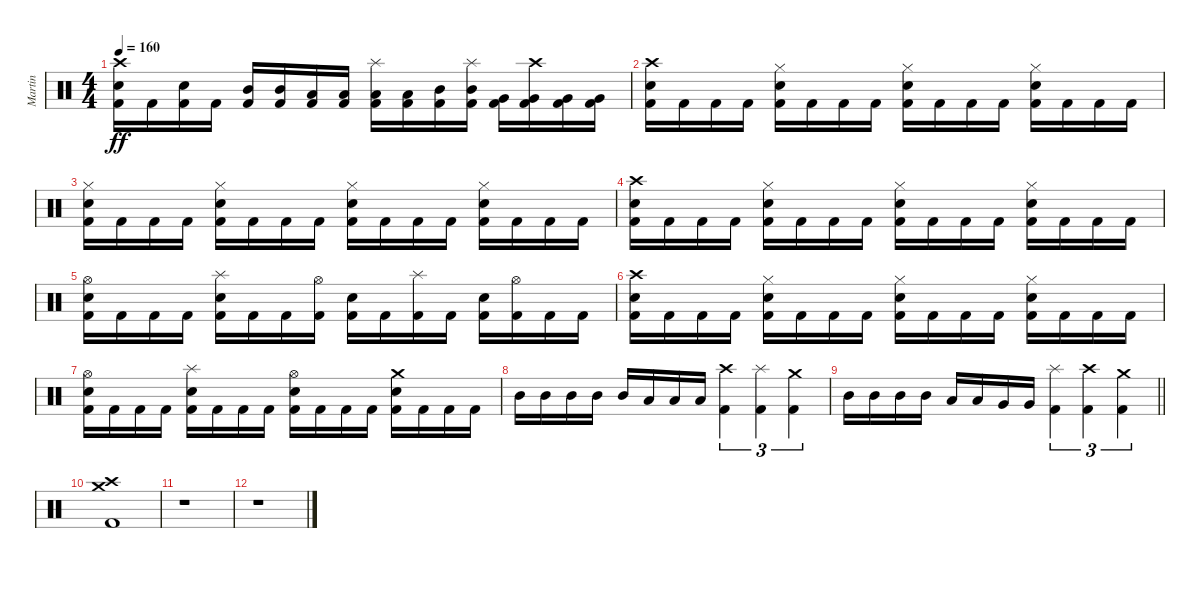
\track ("Martin" "Martin") {instrument percussion}
\staff {score}
\articulation defaults
\ts (4 4)
\tempo 160
\clef neutral
\ks c
("Crash high (hit)" "Electric Snare (hit)" "Kick (hit) 2").16{dy ff} "Kick (hit) 2".16 ("Electric Snare (hit)" "Kick (hit) 2").16 "Kick (hit) 2".16 ("Mid Tom (hit)" "Kick (hit) 2").16 ("Mid Tom (hit)" "Kick (hit) 2").16 ("Low Tom (hit)" "Kick (hit) 2").16 ("Low Tom (hit)" "Kick (hit) 2").16 ("Splash (hit)" "Low Tom (hit)" "Kick (hit) 2").16 ("Low Tom (hit)" "Kick (hit) 2").16 ("Mid Tom (hit)" "Kick (hit) 2").16 ("Splash (hit)" "Mid Tom (hit)" "Kick (hit) 2").16 ("Very Low Tom (hit)" "Kick (hit) 2").16 ("Crash high (hit)" "Very Low Tom (hit)" "Kick (hit) 2").16 ("Very Low Tom (hit)" "Kick (hit) 2").16 ("Very Low Tom (hit)" "Kick (hit) 2").16 |
("Crash high (hit)" "Electric Snare (hit)" "Kick (hit) 2").16 "Kick (hit) 2".16 "Kick (hit) 2".16 "Kick (hit) 2".16 ("Hi-Hat (closed)" "Electric Snare (hit)" "Kick (hit) 2").16 "Kick (hit) 2".16 "Kick (hit) 2".16 "Kick (hit) 2".16 ("Hi-Hat (closed)" "Electric Snare (hit)" "Kick (hit) 2").16 "Kick (hit) 2".16 "Kick (hit) 2".16 "Kick (hit) 2".16 ("Hi-Hat (closed)" "Electric Snare (hit)" "Kick (hit) 2").16 "Kick (hit) 2".16 "Kick (hit) 2".16 "Kick (hit) 2".16 |
("Hi-Hat (closed)" "Electric Snare (hit)" "Kick (hit) 2").16 "Kick (hit) 2".16 "Kick (hit) 2".16 "Kick (hit) 2".16 ("Hi-Hat (closed)" "Electric Snare (hit)" "Kick (hit) 2").16 "Kick (hit) 2".16 "Kick (hit) 2".16 "Kick (hit) 2".16 ("Hi-Hat (closed)" "Electric Snare (hit)" "Kick (hit) 2").16 "Kick (hit) 2".16 "Kick (hit) 2".16 "Kick (hit) 2".16 ("Hi-Hat (closed)" "Electric Snare (hit)" "Kick (hit) 2").16 "Kick (hit) 2".16 "Kick (hit) 2".16 "Kick (hit) 2".16 |
("Crash high (hit)" "Electric Snare (hit)" "Kick (hit) 2").16 "Kick (hit) 2".16 "Kick (hit) 2".16 "Kick (hit) 2".16 ("Hi-Hat (closed)" "Electric Snare (hit)" "Kick (hit) 2").16 "Kick (hit) 2".16 "Kick (hit) 2".16 "Kick (hit) 2".16 ("Hi-Hat (closed)" "Electric Snare (hit)" "Kick (hit) 2").16 "Kick (hit) 2".16 "Kick (hit) 2".16 "Kick (hit) 2".16 ("Hi-Hat (closed)" "Electric Snare (hit)" "Kick (hit) 2").16 "Kick (hit) 2".16 "Kick (hit) 2".16 "Kick (hit) 2".16 |
("Hi-Hat (open)" "Electric Snare (hit)" "Kick (hit) 2").16 "Kick (hit) 2".16 "Kick (hit) 2".16 "Kick (hit) 2".16 ("Splash (hit)" "Electric Snare (hit)" "Kick (hit) 2").16 "Kick (hit) 2".16 "Kick (hit) 2".16 ("Hi-Hat (open)" "Kick (hit) 2").16 ("Electric Snare (hit)" "Kick (hit) 2").16 "Kick (hit) 2".16 ("Splash (hit)" "Kick (hit) 2").16 "Kick (hit) 2".16 ("Electric Snare (hit)" "Kick (hit) 2").16 ("Hi-Hat (open)" "Kick (hit) 2").16 "Kick (hit) 2".16 "Kick (hit) 2".16 |
("Crash high (hit)" "Electric Snare (hit)" "Kick (hit) 2").16 "Kick (hit) 2".16 "Kick (hit) 2".16 "Kick (hit) 2".16 ("Hi-Hat (closed)" "Electric Snare (hit)" "Kick (hit) 2").16 "Kick (hit) 2".16 "Kick (hit) 2".16 "Kick (hit) 2".16 ("Hi-Hat (closed)" "Electric Snare (hit)" "Kick (hit) 2").16 "Kick (hit) 2".16 "Kick (hit) 2".16 "Kick (hit) 2".16 ("Hi-Hat (closed)" "Electric Snare (hit)" "Kick (hit) 2").16 "Kick (hit) 2".16 "Kick (hit) 2".16 "Kick (hit) 2".16 |
("Hi-Hat (open)" "Electric Snare (hit)" "Kick (hit) 2").16 "Kick (hit) 2".16 "Kick (hit) 2".16 "Kick (hit) 2".16 ("Splash (hit)" "Electric Snare (hit)" "Kick (hit) 2").16 "Kick (hit) 2".16 "Kick (hit) 2".16 "Kick (hit) 2".16 ("Hi-Hat (open)" "Electric Snare (hit)" "Kick (hit) 2").16 "Kick (hit) 2".16 "Kick (hit) 2".16 "Kick (hit) 2".16 ("Crash medium (hit)" "Electric Snare (hit)" "Kick (hit) 2").16 "Kick (hit) 2".16 "Kick (hit) 2".16 "Kick (hit) 2".16 |
"Mid Tom (hit)".16 "Mid Tom (hit)".16 "Mid Tom (hit)".16 "Mid Tom (hit)".16 "Mid Tom (hit)".16 "Low Tom (hit)".16 "Low Tom (hit)".16 "Low Tom (hit)".16 ("Crash high (hit)" "Kick (hit) 2").4{tu (3 2)} ("Splash (hit)" "Kick (hit) 2").4{tu (3 2)} ("Crash medium (hit)" "Kick (hit) 2").4{tu (3 2)} |
\barLineRight lightlight "Mid Tom (hit)".16 "Mid Tom (hit)".16 "Mid Tom (hit)".16 "Mid Tom (hit)".16 "Low Tom (hit)".16 "Low Tom (hit)".16 "Very Low Tom (hit)".16 "Very Low Tom (hit)".16
("Splash (hit)" "Kick (hit) 2").4{tu (3 2)} ("Crash high (hit)" "Kick (hit) 2").4{tu (3 2)} ("Crash medium (hit)" "Kick (hit) 2").4{tu (3 2)} |
("Crash high (hit)" "Crash medium (hit)" "Kick (hit) 2").1 |
r.1 |
r.1
